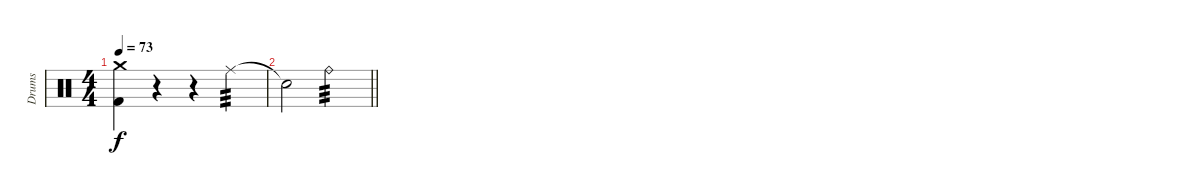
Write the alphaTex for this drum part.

\track ("Drums" "Drums") {instrument percussion}
\staff {score}
\articulation defaults
\ts (4 4)
\tempo 73
\clef neutral
\ks c
("Crash medium (hit)" "Kick (hit) 2").4{dy f} r.4 r.4 "Ride (middle)".4{tp 3} |
\barLineRight lightlight "Snare (hit)"{t}.2 "Ride (bell)".2{tp 3}
